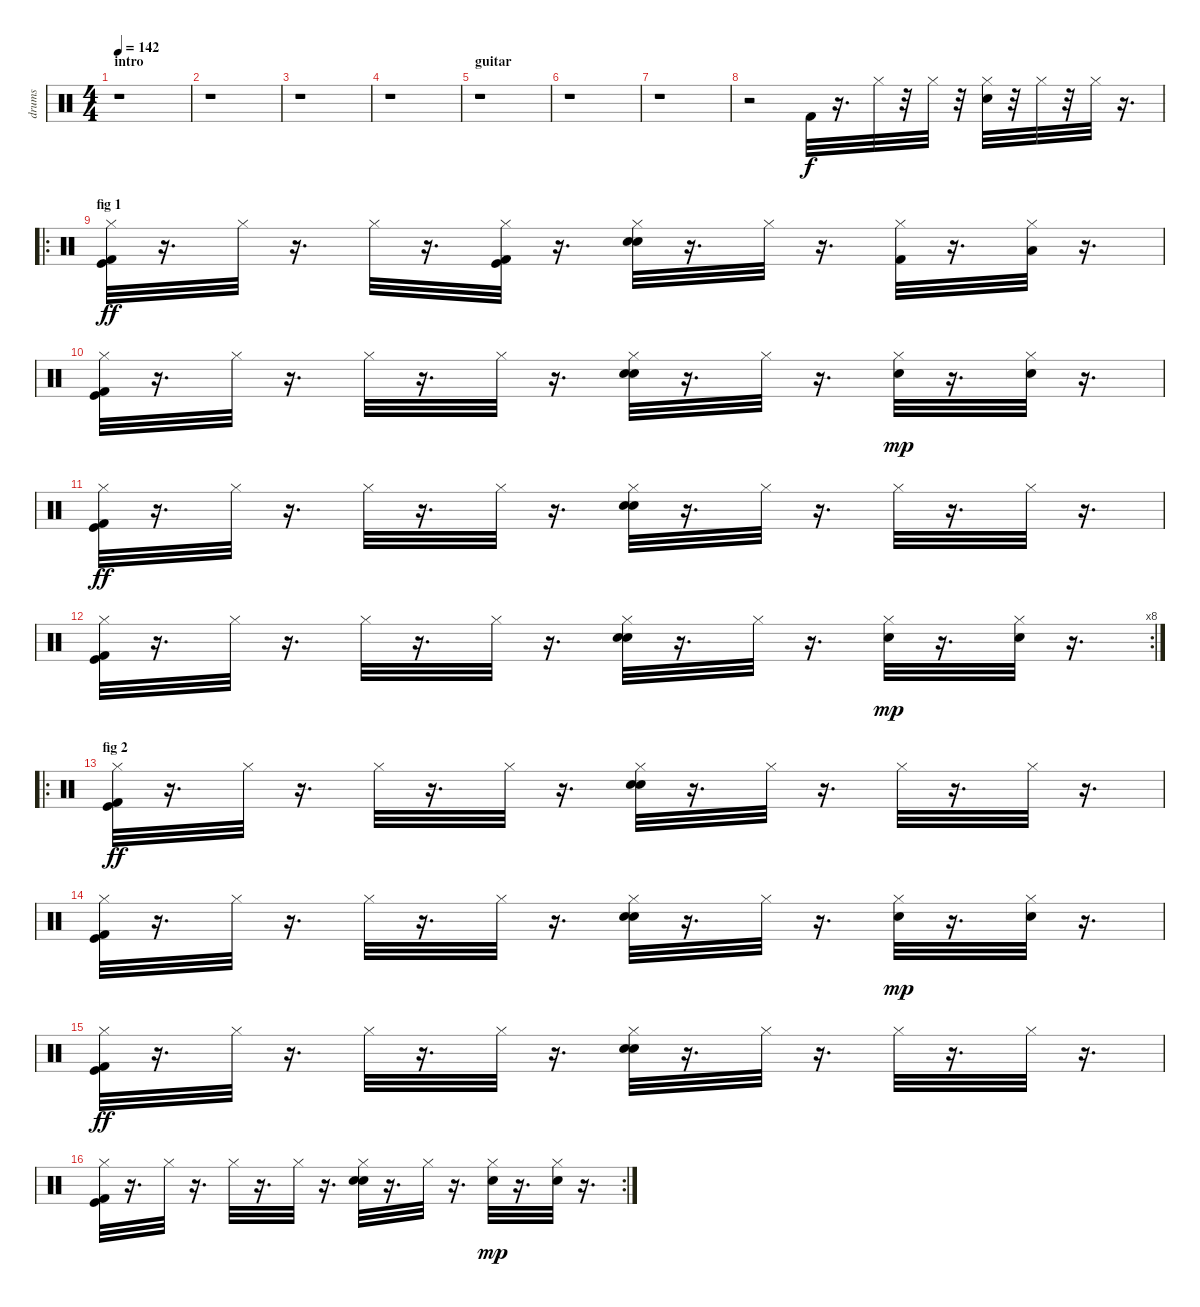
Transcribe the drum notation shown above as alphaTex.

\track ("drums" "drums") {instrument percussion}
\staff {score}
\articulation defaults
\ts (4 4)
\section ("" "intro")
\tempo 142
\clef neutral
\ks c
r.1{dy f} |
r.1 |
r.1 |
r.1 |
\section ("" "guitar")
r.1 |
r.1 |
r.1 |
r.2 "Kick (hit) 2".32 r.16{d} "Hi-Hat (closed)".32 r.32 "Hi-Hat (closed)".32 r.32 ("Snare (hit) 2" "Hi-Hat (closed)").32 r.32 "Hi-Hat (closed)".32 r.32 "Hi-Hat (closed)".32 r.16{d} |
\ro
\section ("" "fig 1")
("Kick (hit) 2" "Hi-Hat (closed)" "Kick (hit)").32{dy ff} r.16{d} "Hi-Hat (closed)".32 r.16{d} "Hi-Hat (closed)".32 r.16{d} ("Hi-Hat (closed)" "Kick (hit) 2" "Kick (hit)").32 r.16{d} ("Snare (hit) 2" "Hi-Hat (closed)" "Electric Snare (hit)").32 r.16{d} "Hi-Hat (closed)".32 r.16{d} ("Hi-Hat (closed)" "Kick (hit) 2").32 r.16{d} ("Hi-Hat (closed)" "Low Tom (hit)").32 r.16{d} |
("Kick (hit) 2" "Hi-Hat (closed)" "Kick (hit)").32 r.16{d} "Hi-Hat (closed)".32 r.16{d} "Hi-Hat (closed)".32 r.16{d} "Hi-Hat (closed)".32 r.16{d} ("Snare (hit) 2" "Hi-Hat (closed)" "Electric Snare (hit)").32 r.16{d} "Hi-Hat (closed)".32 r.16{d} ("Hi-Hat (closed)" "Electric Snare (hit)").32{dy mp} r.16{d} ("Hi-Hat (closed)" "Electric Snare (hit)").32 r.16{d} |
("Kick (hit) 2" "Hi-Hat (closed)" "Kick (hit)").32{dy ff} r.16{d} "Hi-Hat (closed)".32 r.16{d} "Hi-Hat (closed)".32 r.16{d} "Hi-Hat (closed)".32 r.16{d} ("Snare (hit) 2" "Hi-Hat (closed)" "Electric Snare (hit)").32 r.16{d} "Hi-Hat (closed)".32 r.16{d} "Hi-Hat (closed)".32 r.16{d} "Hi-Hat (closed)".32 r.16{d} |
\rc 8
("Kick (hit) 2" "Hi-Hat (closed)" "Kick (hit)").32 r.16{d} "Hi-Hat (closed)".32 r.16{d} "Hi-Hat (closed)".32 r.16{d} "Hi-Hat (closed)".32 r.16{d} ("Snare (hit) 2" "Hi-Hat (closed)" "Electric Snare (hit)").32 r.16{d} "Hi-Hat (closed)".32 r.16{d} ("Hi-Hat (closed)" "Electric Snare (hit)").32{dy mp} r.16{d} ("Hi-Hat (closed)" "Electric Snare (hit)").32 r.16{d} |
\ro
\section ("" "fig 2")
("Kick (hit) 2" "Hi-Hat (closed)" "Kick (hit)").32{dy ff} r.16{d} "Hi-Hat (closed)".32 r.16{d} "Hi-Hat (closed)".32 r.16{d} "Hi-Hat (closed)".32 r.16{d} ("Snare (hit) 2" "Hi-Hat (closed)" "Electric Snare (hit)").32 r.16{d} "Hi-Hat (closed)".32 r.16{d} "Hi-Hat (closed)".32 r.16{d} "Hi-Hat (closed)".32 r.16{d} |
("Kick (hit) 2" "Hi-Hat (closed)" "Kick (hit)").32 r.16{d} "Hi-Hat (closed)".32 r.16{d} "Hi-Hat (closed)".32 r.16{d} "Hi-Hat (closed)".32 r.16{d} ("Snare (hit) 2" "Hi-Hat (closed)" "Electric Snare (hit)").32 r.16{d} "Hi-Hat (closed)".32 r.16{d} ("Hi-Hat (closed)" "Electric Snare (hit)").32{dy mp} r.16{d} ("Hi-Hat (closed)" "Electric Snare (hit)").32 r.16{d} |
("Kick (hit) 2" "Hi-Hat (closed)" "Kick (hit)").32{dy ff} r.16{d} "Hi-Hat (closed)".32 r.16{d} "Hi-Hat (closed)".32 r.16{d} "Hi-Hat (closed)".32 r.16{d} ("Snare (hit) 2" "Hi-Hat (closed)" "Electric Snare (hit)").32 r.16{d} "Hi-Hat (closed)".32 r.16{d} "Hi-Hat (closed)".32 r.16{d} "Hi-Hat (closed)".32 r.16{d} |
\rc 2
("Kick (hit) 2" "Hi-Hat (closed)" "Kick (hit)").32 r.16{d} "Hi-Hat (closed)".32 r.16{d} "Hi-Hat (closed)".32 r.16{d} "Hi-Hat (closed)".32 r.16{d} ("Snare (hit) 2" "Hi-Hat (closed)" "Electric Snare (hit)").32 r.16{d} "Hi-Hat (closed)".32 r.16{d} ("Hi-Hat (closed)" "Electric Snare (hit)").32{dy mp} r.16{d} ("Hi-Hat (closed)" "Electric Snare (hit)").32 r.16{d}
